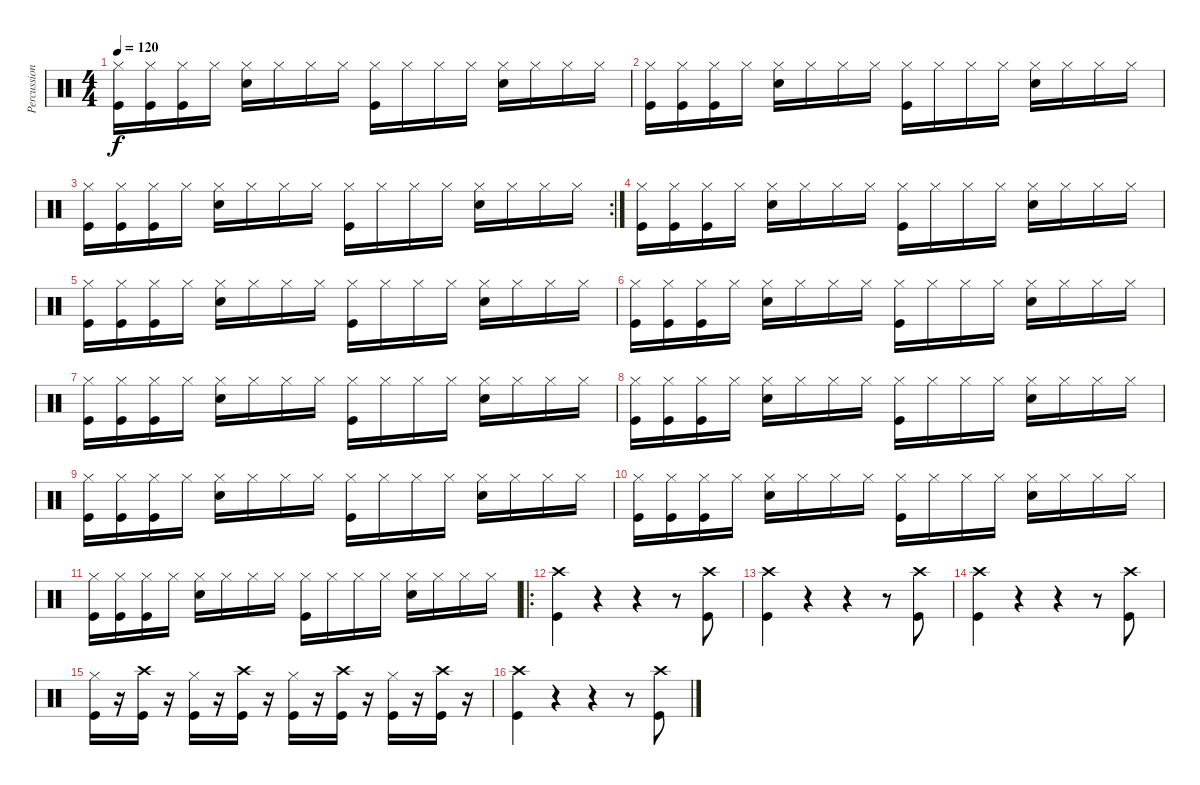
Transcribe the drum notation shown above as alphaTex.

\track ("Percussion" "Percussion") {instrument percussion}
\staff {score}
\articulation defaults
\ts (4 4)
\tempo 120
\clef neutral
\ks c
("Kick (hit)" "Hi-Hat (closed)").16{dy f} ("Kick (hit)" "Hi-Hat (closed)").16 ("Kick (hit)" "Hi-Hat (closed)").16 "Hi-Hat (closed)".16 ("Snare (hit) 2" "Hi-Hat (closed)").16 "Hi-Hat (closed)".16 "Hi-Hat (closed)".16 "Hi-Hat (closed)".16 ("Kick (hit)" "Hi-Hat (closed)").16 "Hi-Hat (closed)".16 "Hi-Hat (closed)".16 "Hi-Hat (closed)".16 ("Snare (hit) 2" "Hi-Hat (closed)").16 "Hi-Hat (closed)".16 "Hi-Hat (closed)".16 "Hi-Hat (closed)".16 |
("Kick (hit)" "Hi-Hat (closed)").16 ("Kick (hit)" "Hi-Hat (closed)").16 ("Kick (hit)" "Hi-Hat (closed)").16 "Hi-Hat (closed)".16 ("Snare (hit) 2" "Hi-Hat (closed)").16 "Hi-Hat (closed)".16 "Hi-Hat (closed)".16 "Hi-Hat (closed)".16 ("Kick (hit)" "Hi-Hat (closed)").16 "Hi-Hat (closed)".16 "Hi-Hat (closed)".16 "Hi-Hat (closed)".16 ("Snare (hit) 2" "Hi-Hat (closed)").16 "Hi-Hat (closed)".16 "Hi-Hat (closed)".16 "Hi-Hat (closed)".16 |
\rc 2
("Kick (hit)" "Hi-Hat (closed)").16 ("Kick (hit)" "Hi-Hat (closed)").16 ("Kick (hit)" "Hi-Hat (closed)").16 "Hi-Hat (closed)".16 ("Snare (hit) 2" "Hi-Hat (closed)").16 "Hi-Hat (closed)".16 "Hi-Hat (closed)".16 "Hi-Hat (closed)".16 ("Kick (hit)" "Hi-Hat (closed)").16 "Hi-Hat (closed)".16 "Hi-Hat (closed)".16 "Hi-Hat (closed)".16 ("Snare (hit) 2" "Hi-Hat (closed)").16 "Hi-Hat (closed)".16 "Hi-Hat (closed)".16 "Hi-Hat (closed)".16 |
("Kick (hit)" "Hi-Hat (closed)").16 ("Kick (hit)" "Hi-Hat (closed)").16 ("Kick (hit)" "Hi-Hat (closed)").16 "Hi-Hat (closed)".16 ("Snare (hit) 2" "Hi-Hat (closed)").16 "Hi-Hat (closed)".16 "Hi-Hat (closed)".16 "Hi-Hat (closed)".16 ("Kick (hit)" "Hi-Hat (closed)").16 "Hi-Hat (closed)".16 "Hi-Hat (closed)".16 "Hi-Hat (closed)".16 ("Snare (hit) 2" "Hi-Hat (closed)").16 "Hi-Hat (closed)".16 "Hi-Hat (closed)".16 "Hi-Hat (closed)".16 |
("Kick (hit)" "Hi-Hat (closed)").16 ("Kick (hit)" "Hi-Hat (closed)").16 ("Kick (hit)" "Hi-Hat (closed)").16 "Hi-Hat (closed)".16 ("Snare (hit) 2" "Hi-Hat (closed)").16 "Hi-Hat (closed)".16 "Hi-Hat (closed)".16 "Hi-Hat (closed)".16 ("Kick (hit)" "Hi-Hat (closed)").16 "Hi-Hat (closed)".16 "Hi-Hat (closed)".16 "Hi-Hat (closed)".16 ("Snare (hit) 2" "Hi-Hat (closed)").16 "Hi-Hat (closed)".16 "Hi-Hat (closed)".16 "Hi-Hat (closed)".16 |
("Kick (hit)" "Hi-Hat (closed)").16 ("Kick (hit)" "Hi-Hat (closed)").16 ("Kick (hit)" "Hi-Hat (closed)").16 "Hi-Hat (closed)".16 ("Snare (hit) 2" "Hi-Hat (closed)").16 "Hi-Hat (closed)".16 "Hi-Hat (closed)".16 "Hi-Hat (closed)".16 ("Kick (hit)" "Hi-Hat (closed)").16 "Hi-Hat (closed)".16 "Hi-Hat (closed)".16 "Hi-Hat (closed)".16 ("Snare (hit) 2" "Hi-Hat (closed)").16 "Hi-Hat (closed)".16 "Hi-Hat (closed)".16 "Hi-Hat (closed)".16 |
("Kick (hit)" "Hi-Hat (closed)").16 ("Kick (hit)" "Hi-Hat (closed)").16 ("Kick (hit)" "Hi-Hat (closed)").16 "Hi-Hat (closed)".16 ("Snare (hit) 2" "Hi-Hat (closed)").16 "Hi-Hat (closed)".16 "Hi-Hat (closed)".16 "Hi-Hat (closed)".16 ("Kick (hit)" "Hi-Hat (closed)").16 "Hi-Hat (closed)".16 "Hi-Hat (closed)".16 "Hi-Hat (closed)".16 ("Snare (hit) 2" "Hi-Hat (closed)").16 "Hi-Hat (closed)".16 "Hi-Hat (closed)".16 "Hi-Hat (closed)".16 |
("Kick (hit)" "Hi-Hat (closed)").16 ("Kick (hit)" "Hi-Hat (closed)").16 ("Kick (hit)" "Hi-Hat (closed)").16 "Hi-Hat (closed)".16 ("Snare (hit) 2" "Hi-Hat (closed)").16 "Hi-Hat (closed)".16 "Hi-Hat (closed)".16 "Hi-Hat (closed)".16 ("Kick (hit)" "Hi-Hat (closed)").16 "Hi-Hat (closed)".16 "Hi-Hat (closed)".16 "Hi-Hat (closed)".16 ("Snare (hit) 2" "Hi-Hat (closed)").16 "Hi-Hat (closed)".16 "Hi-Hat (closed)".16 "Hi-Hat (closed)".16 |
("Kick (hit)" "Hi-Hat (closed)").16 ("Kick (hit)" "Hi-Hat (closed)").16 ("Kick (hit)" "Hi-Hat (closed)").16 "Hi-Hat (closed)".16 ("Snare (hit) 2" "Hi-Hat (closed)").16 "Hi-Hat (closed)".16 "Hi-Hat (closed)".16 "Hi-Hat (closed)".16 ("Kick (hit)" "Hi-Hat (closed)").16 "Hi-Hat (closed)".16 "Hi-Hat (closed)".16 "Hi-Hat (closed)".16 ("Snare (hit) 2" "Hi-Hat (closed)").16 "Hi-Hat (closed)".16 "Hi-Hat (closed)".16 "Hi-Hat (closed)".16 |
("Kick (hit)" "Hi-Hat (closed)").16 ("Kick (hit)" "Hi-Hat (closed)").16 ("Kick (hit)" "Hi-Hat (closed)").16 "Hi-Hat (closed)".16 ("Snare (hit) 2" "Hi-Hat (closed)").16 "Hi-Hat (closed)".16 "Hi-Hat (closed)".16 "Hi-Hat (closed)".16 ("Kick (hit)" "Hi-Hat (closed)").16 "Hi-Hat (closed)".16 "Hi-Hat (closed)".16 "Hi-Hat (closed)".16 ("Snare (hit) 2" "Hi-Hat (closed)").16 "Hi-Hat (closed)".16 "Hi-Hat (closed)".16 "Hi-Hat (closed)".16 |
("Kick (hit)" "Hi-Hat (closed)").16 ("Kick (hit)" "Hi-Hat (closed)").16 ("Kick (hit)" "Hi-Hat (closed)").16 "Hi-Hat (closed)".16 ("Snare (hit) 2" "Hi-Hat (closed)").16 "Hi-Hat (closed)".16 "Hi-Hat (closed)".16 "Hi-Hat (closed)".16 ("Kick (hit)" "Hi-Hat (closed)").16 "Hi-Hat (closed)".16 "Hi-Hat (closed)".16 "Hi-Hat (closed)".16 ("Snare (hit) 2" "Hi-Hat (closed)").16 "Hi-Hat (closed)".16 "Hi-Hat (closed)".16 "Hi-Hat (closed)".16 |
\ro
("Kick (hit)" "Crash high (hit)").4 r.4 r.4 r.8 ("Kick (hit)" "Crash high (hit)").8 |
("Kick (hit)" "Crash high (hit)").4 r.4 r.4 r.8 ("Kick (hit)" "Crash high (hit)").8 |
("Kick (hit)" "Crash high (hit)").4 r.4 r.4 r.8 ("Kick (hit)" "Crash high (hit)").8 |
("Hi-Hat (closed)" "Kick (hit)").16 r.16 ("Crash high (hit)" "Kick (hit)").16 r.16 ("Hi-Hat (closed)" "Kick (hit)").16 r.16 ("Crash high (hit)" "Kick (hit)").16 r.16 ("Hi-Hat (closed)" "Kick (hit)").16 r.16 ("Crash high (hit)" "Kick (hit)").16 r.16 ("Hi-Hat (closed)" "Kick (hit)").16 r.16 ("Crash high (hit)" "Kick (hit)").16 r.16 |
("Kick (hit)" "Crash high (hit)").4 r.4 r.4 r.8 ("Kick (hit)" "Crash high (hit)").8
